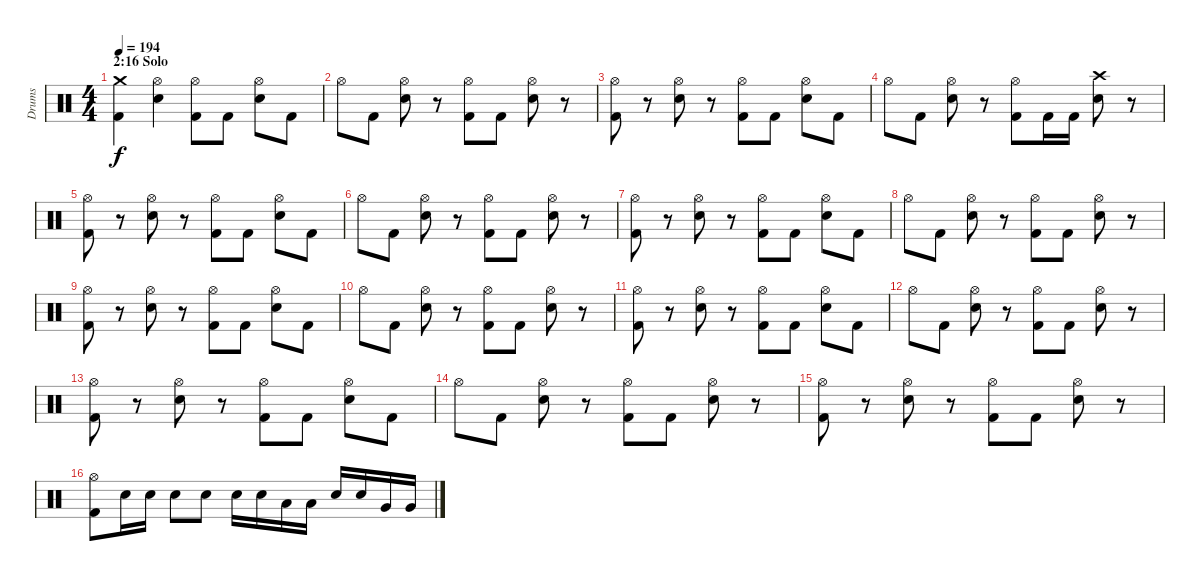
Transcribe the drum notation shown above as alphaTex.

\track ("Drums" "Drums") {instrument percussion}
\staff {score}
\articulation defaults
\ts (4 4)
\section ("" "2:16 Solo")
\tempo 194
\clef neutral
\ks c
("Crash medium (hit)" "Kick (hit) 2").4{dy f} ("Hi-Hat (open)" "Snare (hit) 2").4 ("Hi-Hat (open)" "Kick (hit) 2").8 "Kick (hit) 2".8 ("Hi-Hat (open)" "Snare (hit) 2").8 "Kick (hit) 2".8 |
"Hi-Hat (open)".8 "Kick (hit) 2".8 ("Hi-Hat (open)" "Snare (hit) 2").8 r.8 ("Hi-Hat (open)" "Kick (hit) 2").8 "Kick (hit) 2".8 ("Hi-Hat (open)" "Snare (hit) 2").8 r.8 |
("Hi-Hat (open)" "Kick (hit) 2").8 r.8 ("Hi-Hat (open)" "Snare (hit) 2").8 r.8 ("Hi-Hat (open)" "Kick (hit) 2").8 "Kick (hit) 2".8 ("Hi-Hat (open)" "Snare (hit) 2").8 "Kick (hit) 2".8 |
"Hi-Hat (open)".8 "Kick (hit) 2".8 ("Hi-Hat (open)" "Snare (hit) 2").8 r.8 ("Hi-Hat (open)" "Kick (hit) 2").8 "Kick (hit) 2".16 "Kick (hit) 2".16 ("Crash high (hit)" "Snare (hit) 2").8 r.8 |
("Hi-Hat (open)" "Kick (hit) 2").8 r.8 ("Hi-Hat (open)" "Snare (hit) 2").8 r.8 ("Hi-Hat (open)" "Kick (hit) 2").8 "Kick (hit) 2".8 ("Hi-Hat (open)" "Snare (hit) 2").8 "Kick (hit) 2".8 |
"Hi-Hat (open)".8 "Kick (hit) 2".8 ("Hi-Hat (open)" "Snare (hit) 2").8 r.8 ("Hi-Hat (open)" "Kick (hit) 2").8 "Kick (hit) 2".8 ("Hi-Hat (open)" "Snare (hit) 2").8 r.8 |
("Hi-Hat (open)" "Kick (hit) 2").8 r.8 ("Hi-Hat (open)" "Snare (hit) 2").8 r.8 ("Hi-Hat (open)" "Kick (hit) 2").8 "Kick (hit) 2".8 ("Hi-Hat (open)" "Snare (hit) 2").8 "Kick (hit) 2".8 |
"Hi-Hat (open)".8 "Kick (hit) 2".8 ("Hi-Hat (open)" "Snare (hit) 2").8 r.8 ("Hi-Hat (open)" "Kick (hit) 2").8 "Kick (hit) 2".8 ("Hi-Hat (open)" "Snare (hit) 2").8 r.8 |
("Hi-Hat (open)" "Kick (hit) 2").8 r.8 ("Hi-Hat (open)" "Snare (hit) 2").8 r.8 ("Hi-Hat (open)" "Kick (hit) 2").8 "Kick (hit) 2".8 ("Hi-Hat (open)" "Snare (hit) 2").8 "Kick (hit) 2".8 |
"Hi-Hat (open)".8 "Kick (hit) 2".8 ("Hi-Hat (open)" "Snare (hit) 2").8 r.8 ("Hi-Hat (open)" "Kick (hit) 2").8 "Kick (hit) 2".8 ("Hi-Hat (open)" "Snare (hit) 2").8 r.8 |
("Hi-Hat (open)" "Kick (hit) 2").8 r.8 ("Hi-Hat (open)" "Snare (hit) 2").8 r.8 ("Hi-Hat (open)" "Kick (hit) 2").8 "Kick (hit) 2".8 ("Hi-Hat (open)" "Snare (hit) 2").8 "Kick (hit) 2".8 |
"Hi-Hat (open)".8 "Kick (hit) 2".8 ("Hi-Hat (open)" "Snare (hit) 2").8 r.8 ("Hi-Hat (open)" "Kick (hit) 2").8 "Kick (hit) 2".8 ("Hi-Hat (open)" "Snare (hit) 2").8 r.8 |
("Hi-Hat (open)" "Kick (hit) 2").8 r.8 ("Hi-Hat (open)" "Snare (hit) 2").8 r.8 ("Hi-Hat (open)" "Kick (hit) 2").8 "Kick (hit) 2".8 ("Hi-Hat (open)" "Snare (hit) 2").8 "Kick (hit) 2".8 |
"Hi-Hat (open)".8 "Kick (hit) 2".8 ("Hi-Hat (open)" "Snare (hit) 2").8 r.8 ("Hi-Hat (open)" "Kick (hit) 2").8 "Kick (hit) 2".8 ("Hi-Hat (open)" "Snare (hit) 2").8 r.8 |
("Hi-Hat (open)" "Kick (hit) 2").8 r.8 ("Hi-Hat (open)" "Snare (hit) 2").8 r.8 ("Hi-Hat (open)" "Kick (hit) 2").8 "Kick (hit) 2".8 ("Hi-Hat (open)" "Snare (hit) 2").8 r.8 |
("Hi-Hat (open)" "Kick (hit) 2").8 "Snare (hit) 2".16 "Snare (hit) 2".16 "Snare (hit) 2".8 "Snare (hit) 2".8 "Snare (hit) 2".16 "Snare (hit) 2".16 "Low Tom (hit)".16 "Low Tom (hit)".16 "Snare (hit) 2".16 "Snare (hit) 2".16 "Very Low Tom (hit)".16 "Very Low Tom (hit)".16
